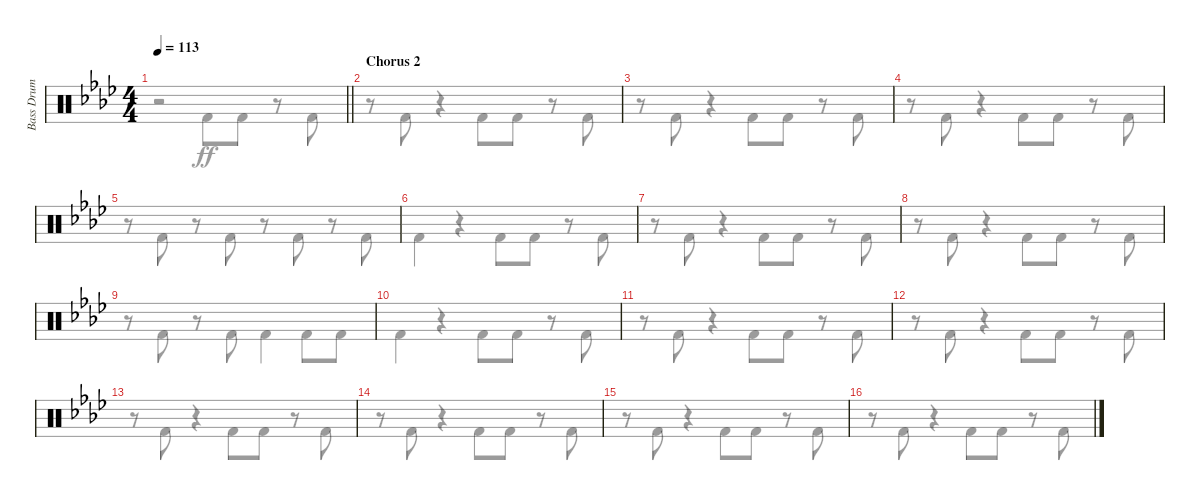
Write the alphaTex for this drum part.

\track ("Bass Drum" "Bass Drum") {instrument percussion}
\staff {score}
\articulation defaults
\voice
\ts (4 4)
\tempo 113
\clef neutral
\barLineRight lightlight
\ks fminor
|
\section ("" "Chorus 2")
|
|
|
|
|
|
|
|
|
|
|
|
|
|
\voice
\clef neutral
\barLineRight lightlight
\ks fminor
r.2{dy ff} "Kick (hit) 2".8 "Kick (hit) 2".8 r.8 "Kick (hit) 2".8 |
r.8 "Kick (hit) 2".8 r.4 "Kick (hit) 2".8 "Kick (hit) 2".8 r.8 "Kick (hit) 2".8 |
r.8 "Kick (hit) 2".8 r.4 "Kick (hit) 2".8 "Kick (hit) 2".8 r.8 "Kick (hit) 2".8 |
r.8 "Kick (hit) 2".8 r.4 "Kick (hit) 2".8 "Kick (hit) 2".8 r.8 "Kick (hit) 2".8 |
r.8 "Kick (hit) 2".8 r.8 "Kick (hit) 2".8 r.8 "Kick (hit) 2".8 r.8 "Kick (hit) 2".8 |
"Kick (hit) 2".4 r.4 "Kick (hit) 2".8 "Kick (hit) 2".8 r.8 "Kick (hit) 2".8 |
r.8 "Kick (hit) 2".8 r.4 "Kick (hit) 2".8 "Kick (hit) 2".8 r.8 "Kick (hit) 2".8 |
r.8 "Kick (hit) 2".8 r.4 "Kick (hit) 2".8 "Kick (hit) 2".8 r.8 "Kick (hit) 2".8 |
r.8 "Kick (hit) 2".8 r.8 "Kick (hit) 2".8 "Kick (hit) 2".4 "Kick (hit) 2".8 "Kick (hit) 2".8 |
"Kick (hit) 2".4 r.4 "Kick (hit) 2".8 "Kick (hit) 2".8 r.8 "Kick (hit) 2".8 |
r.8 "Kick (hit) 2".8 r.4 "Kick (hit) 2".8 "Kick (hit) 2".8 r.8 "Kick (hit) 2".8 |
r.8 "Kick (hit) 2".8 r.4 "Kick (hit) 2".8 "Kick (hit) 2".8 r.8 "Kick (hit) 2".8 |
r.8 "Kick (hit) 2".8 r.4 "Kick (hit) 2".8 "Kick (hit) 2".8 r.8 "Kick (hit) 2".8 |
r.8 "Kick (hit) 2".8 r.4 "Kick (hit) 2".8 "Kick (hit) 2".8 r.8 "Kick (hit) 2".8 |
r.8 "Kick (hit) 2".8 r.4 "Kick (hit) 2".8 "Kick (hit) 2".8 r.8 "Kick (hit) 2".8 |
r.8 "Kick (hit) 2".8 r.4 "Kick (hit) 2".8 "Kick (hit) 2".8 r.8 "Kick (hit) 2".8
